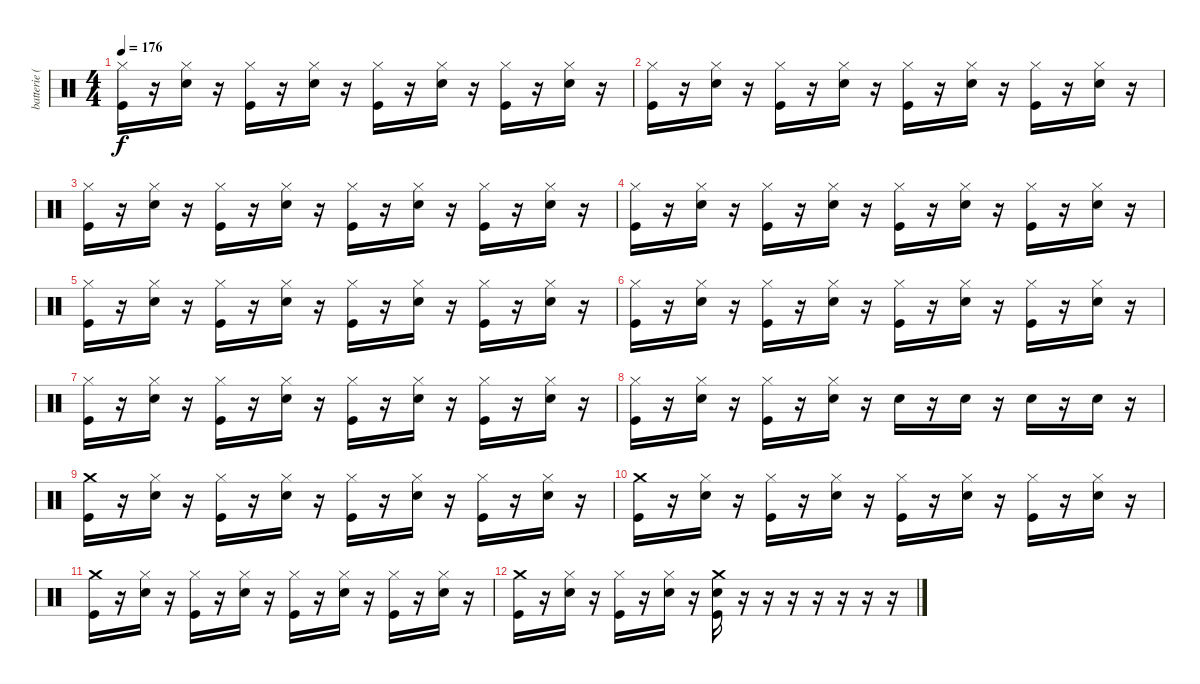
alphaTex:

\track ("batterie ( Jeff Nelson )" "batterie (") {instrument percussion}
\staff {score}
\articulation defaults
\ts (4 4)
\tempo 176
\clef neutral
\ks c
("Hi-Hat (closed)" "Kick (hit)").16{dy f} r.16 ("Hi-Hat (closed)" "Snare (hit) 2").16 r.16 ("Hi-Hat (closed)" "Kick (hit)").16 r.16 ("Hi-Hat (closed)" "Snare (hit) 2").16 r.16 ("Hi-Hat (closed)" "Kick (hit)").16 r.16 ("Hi-Hat (closed)" "Snare (hit) 2").16 r.16 ("Hi-Hat (closed)" "Kick (hit)").16 r.16 ("Hi-Hat (closed)" "Snare (hit) 2").16 r.16 |
("Hi-Hat (closed)" "Kick (hit)").16 r.16 ("Hi-Hat (closed)" "Snare (hit) 2").16 r.16 ("Hi-Hat (closed)" "Kick (hit)").16 r.16 ("Hi-Hat (closed)" "Snare (hit) 2").16 r.16 ("Hi-Hat (closed)" "Kick (hit)").16 r.16 ("Hi-Hat (closed)" "Snare (hit) 2").16 r.16 ("Hi-Hat (closed)" "Kick (hit)").16 r.16 ("Hi-Hat (closed)" "Snare (hit) 2").16 r.16 |
("Hi-Hat (closed)" "Kick (hit)").16 r.16 ("Hi-Hat (closed)" "Snare (hit) 2").16 r.16 ("Hi-Hat (closed)" "Kick (hit)").16 r.16 ("Hi-Hat (closed)" "Snare (hit) 2").16 r.16 ("Hi-Hat (closed)" "Kick (hit)").16 r.16 ("Hi-Hat (closed)" "Snare (hit) 2").16 r.16 ("Hi-Hat (closed)" "Kick (hit)").16 r.16 ("Hi-Hat (closed)" "Snare (hit) 2").16 r.16 |
("Hi-Hat (closed)" "Kick (hit)").16 r.16 ("Hi-Hat (closed)" "Snare (hit) 2").16 r.16 ("Hi-Hat (closed)" "Kick (hit)").16 r.16 ("Hi-Hat (closed)" "Snare (hit) 2").16 r.16 ("Hi-Hat (closed)" "Kick (hit)").16 r.16 ("Hi-Hat (closed)" "Snare (hit) 2").16 r.16 ("Hi-Hat (closed)" "Kick (hit)").16 r.16 ("Hi-Hat (closed)" "Snare (hit) 2").16 r.16 |
("Hi-Hat (closed)" "Kick (hit)").16 r.16 ("Hi-Hat (closed)" "Snare (hit) 2").16 r.16 ("Hi-Hat (closed)" "Kick (hit)").16 r.16 ("Hi-Hat (closed)" "Snare (hit) 2").16 r.16 ("Hi-Hat (closed)" "Kick (hit)").16 r.16 ("Hi-Hat (closed)" "Snare (hit) 2").16 r.16 ("Hi-Hat (closed)" "Kick (hit)").16 r.16 ("Hi-Hat (closed)" "Snare (hit) 2").16 r.16 |
("Hi-Hat (closed)" "Kick (hit)").16 r.16 ("Hi-Hat (closed)" "Snare (hit) 2").16 r.16 ("Hi-Hat (closed)" "Kick (hit)").16 r.16 ("Hi-Hat (closed)" "Snare (hit) 2").16 r.16 ("Hi-Hat (closed)" "Kick (hit)").16 r.16 ("Hi-Hat (closed)" "Snare (hit) 2").16 r.16 ("Hi-Hat (closed)" "Kick (hit)").16 r.16 ("Hi-Hat (closed)" "Snare (hit) 2").16 r.16 |
("Hi-Hat (closed)" "Kick (hit)").16 r.16 ("Hi-Hat (closed)" "Snare (hit) 2").16 r.16 ("Hi-Hat (closed)" "Kick (hit)").16 r.16 ("Hi-Hat (closed)" "Snare (hit) 2").16 r.16 ("Hi-Hat (closed)" "Kick (hit)").16 r.16 ("Hi-Hat (closed)" "Snare (hit) 2").16 r.16 ("Hi-Hat (closed)" "Kick (hit)").16 r.16 ("Hi-Hat (closed)" "Snare (hit) 2").16 r.16 |
("Hi-Hat (closed)" "Kick (hit)").16 r.16 ("Hi-Hat (closed)" "Snare (hit) 2").16 r.16 ("Hi-Hat (closed)" "Kick (hit)").16 r.16 ("Hi-Hat (closed)" "Snare (hit) 2").16 r.16 "Snare (hit) 2".16 r.16 "Snare (hit) 2".16 r.16 "Snare (hit) 2".16 r.16 "Snare (hit) 2".16 r.16 |
("Crash medium (hit)" "Kick (hit)").16 r.16 ("Hi-Hat (closed)" "Snare (hit) 2").16 r.16 ("Hi-Hat (closed)" "Kick (hit)").16 r.16 ("Hi-Hat (closed)" "Snare (hit) 2").16 r.16 ("Hi-Hat (closed)" "Kick (hit)").16 r.16 ("Hi-Hat (closed)" "Snare (hit) 2").16 r.16 ("Hi-Hat (closed)" "Kick (hit)").16 r.16 ("Hi-Hat (closed)" "Snare (hit) 2").16 r.16 |
("Crash medium (hit)" "Kick (hit)").16 r.16 ("Hi-Hat (closed)" "Snare (hit) 2").16 r.16 ("Hi-Hat (closed)" "Kick (hit)").16 r.16 ("Hi-Hat (closed)" "Snare (hit) 2").16 r.16 ("Hi-Hat (closed)" "Kick (hit)").16 r.16 ("Hi-Hat (closed)" "Snare (hit) 2").16 r.16 ("Hi-Hat (closed)" "Kick (hit)").16 r.16 ("Hi-Hat (closed)" "Snare (hit) 2").16 r.16 |
("Crash medium (hit)" "Kick (hit)").16 r.16 ("Hi-Hat (closed)" "Snare (hit) 2").16 r.16 ("Hi-Hat (closed)" "Kick (hit)").16 r.16 ("Hi-Hat (closed)" "Snare (hit) 2").16 r.16 ("Hi-Hat (closed)" "Kick (hit)").16 r.16 ("Hi-Hat (closed)" "Snare (hit) 2").16 r.16 ("Hi-Hat (closed)" "Kick (hit)").16 r.16 ("Hi-Hat (closed)" "Snare (hit) 2").16 r.16 |
("Crash medium (hit)" "Kick (hit)").16 r.16 ("Hi-Hat (closed)" "Snare (hit) 2").16 r.16 ("Hi-Hat (closed)" "Kick (hit)").16 r.16 ("Hi-Hat (closed)" "Snare (hit) 2").16 r.16 ("Crash medium (hit)" "Snare (hit) 2" "Kick (hit)").16 r.16 r.16 r.16 r.16 r.16 r.16 r.16
